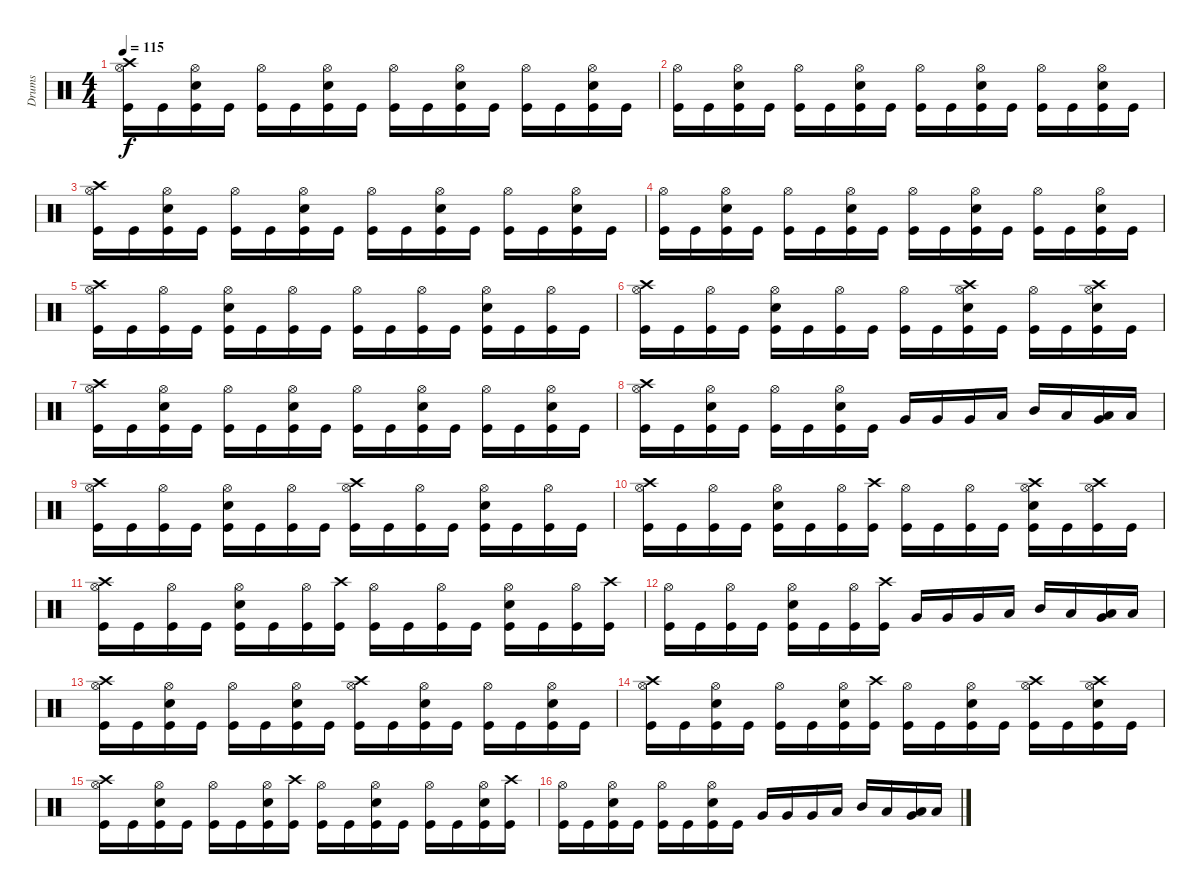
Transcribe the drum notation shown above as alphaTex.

\track ("Drums" "Drums") {instrument percussion}
\staff {score}
\articulation defaults
\ts (4 4)
\tempo 115
\clef neutral
\ks c
("Crash high (hit)" "Kick (hit)" "Hi-Hat (open)").16{dy f} "Kick (hit)".16 ("Kick (hit)" "Electric Snare (hit)" "Hi-Hat (open)").16 "Kick (hit)".16 ("Kick (hit)" "Hi-Hat (open)").16 "Kick (hit)".16 ("Kick (hit)" "Electric Snare (hit)" "Hi-Hat (open)").16 "Kick (hit)".16 ("Hi-Hat (open)" "Kick (hit)").16 "Kick (hit)".16 ("Kick (hit)" "Hi-Hat (open)" "Electric Snare (hit)").16 "Kick (hit)".16 ("Hi-Hat (open)" "Kick (hit)").16 "Kick (hit)".16 ("Kick (hit)" "Hi-Hat (open)" "Electric Snare (hit)").16 "Kick (hit)".16 |
("Kick (hit)" "Hi-Hat (open)").16 "Kick (hit)".16 ("Kick (hit)" "Electric Snare (hit)" "Hi-Hat (open)").16 "Kick (hit)".16 ("Kick (hit)" "Hi-Hat (open)").16 "Kick (hit)".16 ("Kick (hit)" "Electric Snare (hit)" "Hi-Hat (open)").16 "Kick (hit)".16 ("Hi-Hat (open)" "Kick (hit)").16 "Kick (hit)".16 ("Kick (hit)" "Hi-Hat (open)" "Electric Snare (hit)").16 "Kick (hit)".16 ("Hi-Hat (open)" "Kick (hit)").16 "Kick (hit)".16 ("Kick (hit)" "Hi-Hat (open)" "Electric Snare (hit)").16 "Kick (hit)".16 |
("Crash high (hit)" "Kick (hit)" "Hi-Hat (open)").16 "Kick (hit)".16 ("Kick (hit)" "Electric Snare (hit)" "Hi-Hat (open)").16 "Kick (hit)".16 ("Kick (hit)" "Hi-Hat (open)").16 "Kick (hit)".16 ("Kick (hit)" "Electric Snare (hit)" "Hi-Hat (open)").16 "Kick (hit)".16 ("Hi-Hat (open)" "Kick (hit)").16 "Kick (hit)".16 ("Kick (hit)" "Hi-Hat (open)" "Electric Snare (hit)").16 "Kick (hit)".16 ("Hi-Hat (open)" "Kick (hit)").16 "Kick (hit)".16 ("Kick (hit)" "Hi-Hat (open)" "Electric Snare (hit)").16 "Kick (hit)".16 |
("Kick (hit)" "Hi-Hat (open)").16 "Kick (hit)".16 ("Kick (hit)" "Electric Snare (hit)" "Hi-Hat (open)").16 "Kick (hit)".16 ("Kick (hit)" "Hi-Hat (open)").16 "Kick (hit)".16 ("Kick (hit)" "Electric Snare (hit)" "Hi-Hat (open)").16 "Kick (hit)".16 ("Hi-Hat (open)" "Kick (hit)").16 "Kick (hit)".16 ("Kick (hit)" "Hi-Hat (open)" "Electric Snare (hit)").16 "Kick (hit)".16 ("Hi-Hat (open)" "Kick (hit)").16 "Kick (hit)".16 ("Kick (hit)" "Hi-Hat (open)" "Electric Snare (hit)").16 "Kick (hit)".16 |
("Crash high (hit)" "Kick (hit)" "Hi-Hat (open)").16 "Kick (hit)".16 ("Kick (hit)" "Hi-Hat (open)").16 "Kick (hit)".16 ("Electric Snare (hit)" "Kick (hit)" "Hi-Hat (open)").16 "Kick (hit)".16 ("Kick (hit)" "Hi-Hat (open)").16 "Kick (hit)".16 ("Hi-Hat (open)" "Kick (hit)").16 "Kick (hit)".16 ("Kick (hit)" "Hi-Hat (open)").16 "Kick (hit)".16 ("Electric Snare (hit)" "Hi-Hat (open)" "Kick (hit)").16 "Kick (hit)".16 ("Kick (hit)" "Hi-Hat (open)").16 "Kick (hit)".16 |
("Crash high (hit)" "Kick (hit)" "Hi-Hat (open)").16 "Kick (hit)".16 ("Kick (hit)" "Hi-Hat (open)").16 "Kick (hit)".16 ("Electric Snare (hit)" "Kick (hit)" "Hi-Hat (open)").16 "Kick (hit)".16 ("Kick (hit)" "Hi-Hat (open)").16 "Kick (hit)".16 ("Hi-Hat (open)" "Kick (hit)").16 "Kick (hit)".16 ("Crash high (hit)" "Electric Snare (hit)" "Kick (hit)" "Hi-Hat (open)").16 "Kick (hit)".16 ("Hi-Hat (open)" "Kick (hit)").16 "Kick (hit)".16 ("Crash high (hit)" "Electric Snare (hit)" "Kick (hit)" "Hi-Hat (open)").16 "Kick (hit)".16 |
("Crash high (hit)" "Kick (hit)" "Hi-Hat (open)").16 "Kick (hit)".16 ("Kick (hit)" "Electric Snare (hit)" "Hi-Hat (open)").16 "Kick (hit)".16 ("Kick (hit)" "Hi-Hat (open)").16 "Kick (hit)".16 ("Kick (hit)" "Electric Snare (hit)" "Hi-Hat (open)").16 "Kick (hit)".16 ("Hi-Hat (open)" "Kick (hit)").16 "Kick (hit)".16 ("Kick (hit)" "Hi-Hat (open)" "Electric Snare (hit)").16 "Kick (hit)".16 ("Hi-Hat (open)" "Kick (hit)").16 "Kick (hit)".16 ("Kick (hit)" "Hi-Hat (open)" "Electric Snare (hit)").16 "Kick (hit)".16 |
("Crash high (hit)" "Kick (hit)" "Hi-Hat (open)").16 "Kick (hit)".16 ("Kick (hit)" "Electric Snare (hit)" "Hi-Hat (open)").16 "Kick (hit)".16 ("Kick (hit)" "Hi-Hat (open)").16 "Kick (hit)".16 ("Kick (hit)" "Electric Snare (hit)" "Hi-Hat (open)").16 "Kick (hit)".16 "Very Low Tom (hit)".16 "Very Low Tom (hit)".16 "Very Low Tom (hit)".16 "Low Floor Tom (hit)".16 "Mid Tom (hit)".16 "Low Tom (hit)".16 ("Low Floor Tom (hit)" "Very Low Tom (hit)").16 "Low Floor Tom (hit)".16 |
("Crash high (hit)" "Kick (hit)" "Hi-Hat (open)").16 "Kick (hit)".16 ("Kick (hit)" "Hi-Hat (open)").16 "Kick (hit)".16 ("Electric Snare (hit)" "Kick (hit)" "Hi-Hat (open)").16 "Kick (hit)".16 ("Kick (hit)" "Hi-Hat (open)").16 "Kick (hit)".16 ("Crash high (hit)" "Hi-Hat (open)" "Kick (hit)").16 "Kick (hit)".16 ("Kick (hit)" "Hi-Hat (open)").16 "Kick (hit)".16 ("Electric Snare (hit)" "Hi-Hat (open)" "Kick (hit)").16 "Kick (hit)".16 ("Kick (hit)" "Hi-Hat (open)").16 "Kick (hit)".16 |
("Crash high (hit)" "Kick (hit)" "Hi-Hat (open)").16 "Kick (hit)".16 ("Kick (hit)" "Hi-Hat (open)").16 "Kick (hit)".16 ("Electric Snare (hit)" "Kick (hit)" "Hi-Hat (open)").16 "Kick (hit)".16 ("Kick (hit)" "Hi-Hat (open)").16 ("Crash high (hit)" "Kick (hit)").16 ("Hi-Hat (open)" "Kick (hit)").16 "Kick (hit)".16 ("Kick (hit)" "Hi-Hat (open)").16 "Kick (hit)".16 ("Crash high (hit)" "Electric Snare (hit)" "Hi-Hat (open)" "Kick (hit)").16 "Kick (hit)".16 ("Crash high (hit)" "Kick (hit)" "Hi-Hat (open)").16 "Kick (hit)".16 |
("Crash high (hit)" "Kick (hit)" "Hi-Hat (open)").16 "Kick (hit)".16 ("Kick (hit)" "Hi-Hat (open)").16 "Kick (hit)".16 ("Electric Snare (hit)" "Kick (hit)" "Hi-Hat (open)").16 "Kick (hit)".16 ("Kick (hit)" "Hi-Hat (open)").16 ("Crash high (hit)" "Kick (hit)").16 ("Hi-Hat (open)" "Kick (hit)").16 "Kick (hit)".16 ("Kick (hit)" "Hi-Hat (open)").16 "Kick (hit)".16 ("Electric Snare (hit)" "Hi-Hat (open)" "Kick (hit)").16 "Kick (hit)".16 ("Kick (hit)" "Hi-Hat (open)").16 ("Crash high (hit)" "Kick (hit)").16 |
("Hi-Hat (open)" "Kick (hit)").16 "Kick (hit)".16 ("Kick (hit)" "Hi-Hat (open)").16 "Kick (hit)".16 ("Electric Snare (hit)" "Kick (hit)" "Hi-Hat (open)").16 "Kick (hit)".16 ("Kick (hit)" "Hi-Hat (open)").16 ("Crash high (hit)" "Kick (hit)").16 "Very Low Tom (hit)".16 "Very Low Tom (hit)".16 "Very Low Tom (hit)".16 "Low Floor Tom (hit)".16 "Mid Tom (hit)".16 "Low Tom (hit)".16 ("Low Floor Tom (hit)" "Very Low Tom (hit)").16 "Low Floor Tom (hit)".16 |
("Crash high (hit)" "Kick (hit)" "Hi-Hat (open)").16 "Kick (hit)".16 ("Electric Snare (hit)" "Kick (hit)" "Hi-Hat (open)").16 "Kick (hit)".16 ("Kick (hit)" "Hi-Hat (open)").16 "Kick (hit)".16 ("Electric Snare (hit)" "Kick (hit)" "Hi-Hat (open)").16 "Kick (hit)".16 ("Crash high (hit)" "Hi-Hat (open)" "Kick (hit)").16 "Kick (hit)".16 ("Electric Snare (hit)" "Kick (hit)" "Hi-Hat (open)").16 "Kick (hit)".16 ("Hi-Hat (open)" "Kick (hit)").16 "Kick (hit)".16 ("Electric Snare (hit)" "Kick (hit)" "Hi-Hat (open)").16 "Kick (hit)".16 |
("Crash high (hit)" "Kick (hit)" "Hi-Hat (open)").16 "Kick (hit)".16 ("Electric Snare (hit)" "Kick (hit)" "Hi-Hat (open)").16 "Kick (hit)".16 ("Kick (hit)" "Hi-Hat (open)").16 "Kick (hit)".16 ("Electric Snare (hit)" "Kick (hit)" "Hi-Hat (open)").16 ("Crash high (hit)" "Kick (hit)").16 ("Hi-Hat (open)" "Kick (hit)").16 "Kick (hit)".16 ("Electric Snare (hit)" "Kick (hit)" "Hi-Hat (open)").16 "Kick (hit)".16 ("Crash high (hit)" "Hi-Hat (open)" "Kick (hit)").16 "Kick (hit)".16 ("Electric Snare (hit)" "Crash high (hit)" "Kick (hit)" "Hi-Hat (open)").16 "Kick (hit)".16 |
("Crash high (hit)" "Kick (hit)" "Hi-Hat (open)").16 "Kick (hit)".16 ("Electric Snare (hit)" "Kick (hit)" "Hi-Hat (open)").16 "Kick (hit)".16 ("Kick (hit)" "Hi-Hat (open)").16 "Kick (hit)".16 ("Electric Snare (hit)" "Kick (hit)" "Hi-Hat (open)").16 ("Crash high (hit)" "Kick (hit)").16 ("Hi-Hat (open)" "Kick (hit)").16 "Kick (hit)".16 ("Electric Snare (hit)" "Kick (hit)" "Hi-Hat (open)").16 "Kick (hit)".16 ("Hi-Hat (open)" "Kick (hit)").16 "Kick (hit)".16 ("Electric Snare (hit)" "Kick (hit)" "Hi-Hat (open)").16 ("Crash high (hit)" "Kick (hit)").16 |
("Kick (hit)" "Hi-Hat (open)").16 "Kick (hit)".16 ("Kick (hit)" "Electric Snare (hit)" "Hi-Hat (open)").16 "Kick (hit)".16 ("Kick (hit)" "Hi-Hat (open)").16 "Kick (hit)".16 ("Kick (hit)" "Electric Snare (hit)" "Hi-Hat (open)").16 "Kick (hit)".16 "Very Low Tom (hit)".16 "Very Low Tom (hit)".16 "Very Low Tom (hit)".16 "Low Floor Tom (hit)".16 "Mid Tom (hit)".16 "Low Tom (hit)".16 ("Low Floor Tom (hit)" "Very Low Tom (hit)").16 "Low Floor Tom (hit)".16
